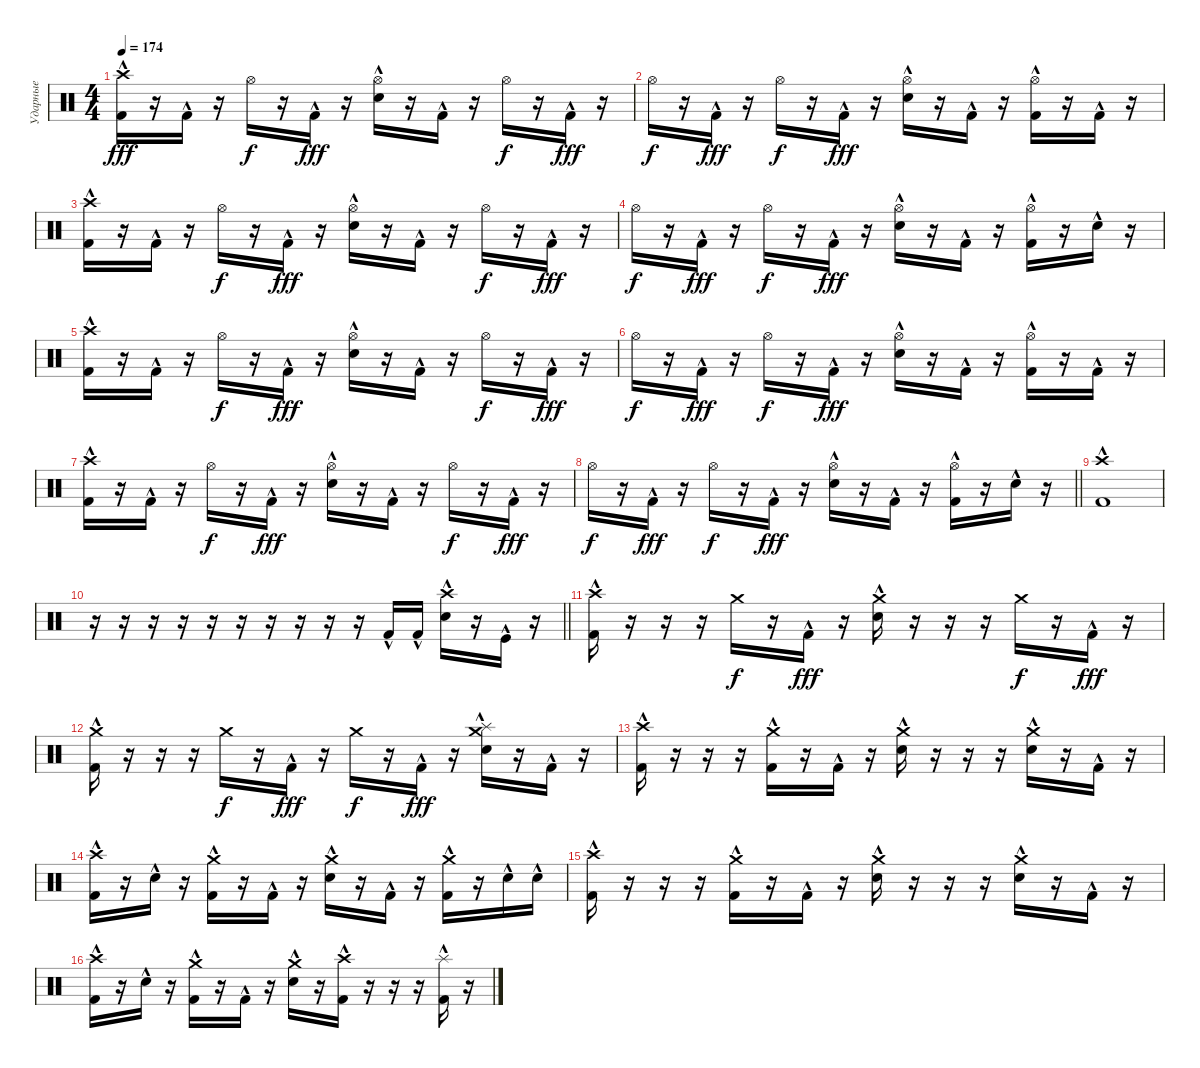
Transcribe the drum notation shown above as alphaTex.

\track ("Ударные" "Ударные") {instrument percussion}
\staff {score}
\articulation defaults
\ts (4 4)
\section ("" "")
\tempo 174
\clef neutral
\ks c
("Crash high (hit)" "Kick (hit) 2"{hac}).16{dy fff} r.16 "Kick (hit) 2"{hac}.16 r.16 "Hi-Hat (open)".16{dy f} r.16 "Kick (hit) 2"{hac}.16{dy fff} r.16 ("Hi-Hat (open)" "Snare (hit) 2"{hac}).16 r.16 "Kick (hit) 2"{hac}.16 r.16 "Hi-Hat (open)".16{dy f} r.16 "Kick (hit) 2"{hac}.16{dy fff} r.16 |
"Hi-Hat (open)".16{dy f} r.16 "Kick (hit) 2"{hac}.16{dy fff} r.16 "Hi-Hat (open)".16{dy f} r.16 "Kick (hit) 2"{hac}.16{dy fff} r.16 ("Hi-Hat (open)" "Snare (hit) 2"{hac}).16 r.16 "Kick (hit) 2"{hac}.16 r.16 ("Hi-Hat (open)" "Kick (hit) 2"{hac}).16 r.16 "Kick (hit) 2"{hac}.16 r.16 |
("Crash high (hit)" "Kick (hit) 2"{hac}).16 r.16 "Kick (hit) 2"{hac}.16 r.16 "Hi-Hat (open)".16{dy f} r.16 "Kick (hit) 2"{hac}.16{dy fff} r.16 ("Hi-Hat (open)" "Snare (hit) 2"{hac}).16 r.16 "Kick (hit) 2"{hac}.16 r.16 "Hi-Hat (open)".16{dy f} r.16 "Kick (hit) 2"{hac}.16{dy fff} r.16 |
"Hi-Hat (open)".16{dy f} r.16 "Kick (hit) 2"{hac}.16{dy fff} r.16 "Hi-Hat (open)".16{dy f} r.16 "Kick (hit) 2"{hac}.16{dy fff} r.16 ("Hi-Hat (open)" "Snare (hit) 2"{hac}).16 r.16 "Kick (hit) 2"{hac}.16 r.16 ("Hi-Hat (open)" "Kick (hit) 2"{hac}).16 r.16 "Snare (hit) 2"{hac}.16 r.16 |
("Crash high (hit)" "Kick (hit) 2"{hac}).16 r.16 "Kick (hit) 2"{hac}.16 r.16 "Hi-Hat (open)".16{dy f} r.16 "Kick (hit) 2"{hac}.16{dy fff} r.16 ("Hi-Hat (open)" "Snare (hit) 2"{hac}).16 r.16 "Kick (hit) 2"{hac}.16 r.16 "Hi-Hat (open)".16{dy f} r.16 "Kick (hit) 2"{hac}.16{dy fff} r.16 |
"Hi-Hat (open)".16{dy f} r.16 "Kick (hit) 2"{hac}.16{dy fff} r.16 "Hi-Hat (open)".16{dy f} r.16 "Kick (hit) 2"{hac}.16{dy fff} r.16 ("Hi-Hat (open)" "Snare (hit) 2"{hac}).16 r.16 "Kick (hit) 2"{hac}.16 r.16 ("Hi-Hat (open)" "Kick (hit) 2"{hac}).16 r.16 "Kick (hit) 2"{hac}.16 r.16 |
("Crash high (hit)" "Kick (hit) 2"{hac}).16 r.16 "Kick (hit) 2"{hac}.16 r.16 "Hi-Hat (open)".16{dy f} r.16 "Kick (hit) 2"{hac}.16{dy fff} r.16 ("Hi-Hat (open)" "Snare (hit) 2"{hac}).16 r.16 "Kick (hit) 2"{hac}.16 r.16 "Hi-Hat (open)".16{dy f} r.16 "Kick (hit) 2"{hac}.16{dy fff} r.16 |
\barLineRight lightlight "Hi-Hat (open)".16{dy f}
r.16 "Kick (hit) 2"{hac}.16{dy fff} r.16 "Hi-Hat (open)".16{dy f} r.16 "Kick (hit) 2"{hac}.16{dy fff} r.16 ("Hi-Hat (open)" "Snare (hit) 2"{hac}).16 r.16 "Kick (hit) 2"{hac}.16 r.16 ("Hi-Hat (open)" "Kick (hit) 2"{hac}).16 r.16 "Snare (hit) 2"{hac}.16 r.16 |
\section ("" "")
("Kick (hit) 2"{hac} "Crash high (hit)").1 |
\barLineRight lightlight
r.16 r.16 r.16 r.16 r.16 r.16 r.16 r.16 r.16 r.16 "Kick (hit) 2"{hac}.16 "Kick (hit) 2"{hac}.16 ("Snare (hit) 2"{hac} "Crash high (hit)").16 r.16 "Kick (hit)"{hac}.16 r.16 |
\section ("" "")
("Crash high (hit)" "Kick (hit) 2"{hac}).16 r.16 r.16 r.16 "Crash medium (hit)".16{dy f} r.16 "Kick (hit) 2"{hac}.16{dy fff} r.16 ("Crash medium (hit)" "Snare (hit) 2"{hac}).16 r.16 r.16 r.16 "Crash medium (hit)".16{dy f} r.16 "Kick (hit) 2"{hac}.16{dy fff} r.16 |
("Crash medium (hit)" "Kick (hit) 2"{hac}).16 r.16 r.16 r.16 "Crash medium (hit)".16{dy f} r.16 "Kick (hit) 2"{hac}.16{dy fff} r.16 "Crash medium (hit)".16{dy f} r.16 "Kick (hit) 2"{hac}.16{dy fff} r.16 ("Crash medium (hit)" "Snare (hit) 2"{hac} "Splash (hit)").16 r.16 "Kick (hit) 2"{hac}.16 r.16 |
("Crash high (hit)" "Kick (hit) 2"{hac}).16 r.16 r.16 r.16 ("Crash medium (hit)" "Kick (hit) 2"{hac}).16 r.16 "Kick (hit) 2"{hac}.16 r.16 ("Crash medium (hit)" "Snare (hit) 2"{hac}).16 r.16 r.16 r.16 ("Crash medium (hit)" "Snare (hit) 2"{hac}).16 r.16 "Kick (hit) 2"{hac}.16 r.16 |
("Crash high (hit)" "Kick (hit) 2"{hac}).16 r.16 "Snare (hit) 2"{hac}.16 r.16 ("Crash medium (hit)" "Kick (hit) 2"{hac}).16 r.16 "Kick (hit) 2"{hac}.16 r.16 ("Crash medium (hit)" "Snare (hit) 2"{hac}).16 r.16 "Kick (hit) 2"{hac}.16 r.16 ("Crash medium (hit)" "Kick (hit) 2"{hac}).16 r.16 "Snare (hit) 2"{hac}.16 "Snare (hit) 2"{hac}.16 |
("Crash high (hit)" "Kick (hit) 2"{hac}).16 r.16 r.16 r.16 ("Crash medium (hit)" "Kick (hit) 2"{hac}).16 r.16 "Kick (hit) 2"{hac}.16 r.16 ("Crash medium (hit)" "Snare (hit) 2"{hac}).16 r.16 r.16 r.16 ("Crash medium (hit)" "Snare (hit) 2"{hac}).16 r.16 "Kick (hit) 2"{hac}.16 r.16 |
("Crash high (hit)" "Kick (hit) 2"{hac}).16 r.16 "Snare (hit) 2"{hac}.16 r.16 ("Crash medium (hit)" "Kick (hit) 2"{hac}).16 r.16 "Kick (hit) 2"{hac}.16 r.16 ("Crash medium (hit)" "Snare (hit) 2"{hac}).16 r.16 ("Kick (hit) 2"{hac} "Crash high (hit)").16 r.16 r.16 r.16 ("Kick (hit) 2"{hac} "Splash (hit)").16 r.16
